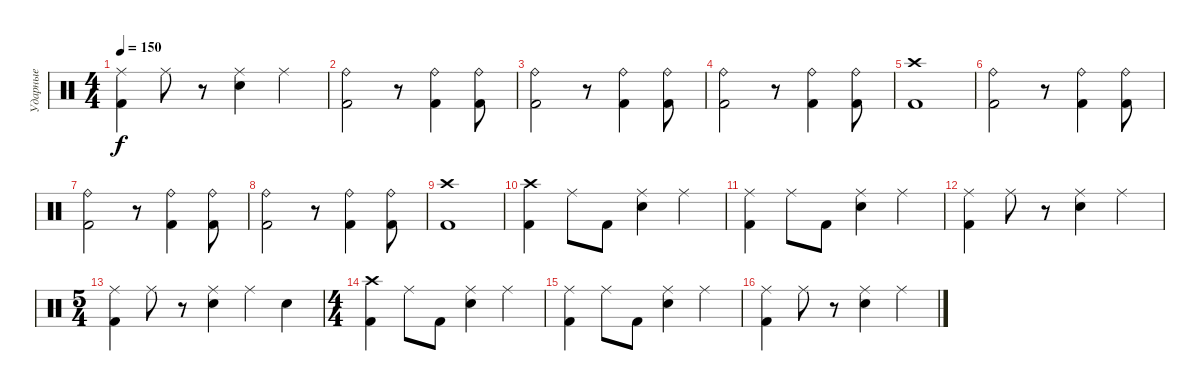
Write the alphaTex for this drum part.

\track ("Ударные" "Ударные") {instrument percussion}
\staff {score}
\articulation defaults
\ts (4 4)
\tempo 150
\clef neutral
\ks c
("Kick (hit) 2" "Ride (middle)").4{dy f} "Ride (middle)".8 r.8 ("Ride (middle)" "Electric Snare (hit)").4 "Ride (middle)".4 |
("Ride (bell)" "Kick (hit) 2").2 r.8 ("Kick (hit) 2" "Ride (bell)").4 ("Ride (bell)" "Kick (hit) 2").8 |
("Ride (bell)" "Kick (hit) 2").2 r.8 ("Kick (hit) 2" "Ride (bell)").4 ("Ride (bell)" "Kick (hit) 2").8 |
("Ride (bell)" "Kick (hit) 2").2 r.8 ("Kick (hit) 2" "Ride (bell)").4 ("Ride (bell)" "Kick (hit) 2").8 |
("Crash high (hit)" "Kick (hit) 2").1 |
("Ride (bell)" "Kick (hit) 2").2 r.8 ("Kick (hit) 2" "Ride (bell)").4 ("Ride (bell)" "Kick (hit) 2").8 |
("Ride (bell)" "Kick (hit) 2").2 r.8 ("Kick (hit) 2" "Ride (bell)").4 ("Ride (bell)" "Kick (hit) 2").8 |
("Ride (bell)" "Kick (hit) 2").2 r.8 ("Kick (hit) 2" "Ride (bell)").4 ("Ride (bell)" "Kick (hit) 2").8 |
("Crash high (hit)" "Kick (hit) 2").1 |
("Kick (hit) 2" "Crash high (hit)").4 "Ride (middle)".8 "Kick (hit) 2".8 ("Ride (middle)" "Electric Snare (hit)").4 "Ride (middle)".4 |
("Kick (hit) 2" "Ride (middle)").4 "Ride (middle)".8 "Kick (hit) 2".8 ("Ride (middle)" "Electric Snare (hit)").4 "Ride (middle)".4 |
("Kick (hit) 2" "Ride (middle)").4 "Ride (middle)".8 r.8 ("Ride (middle)" "Electric Snare (hit)").4 "Ride (middle)".4 |
\ts (5 4)
("Kick (hit) 2" "Ride (middle)").4 "Ride (middle)".8 r.8 ("Ride (middle)" "Electric Snare (hit)").4 "Ride (middle)".4 "Electric Snare (hit)".4 |
\ts (4 4)
("Kick (hit) 2" "Crash high (hit)").4 "Ride (middle)".8 "Kick (hit) 2".8 ("Ride (middle)" "Electric Snare (hit)").4 "Ride (middle)".4 |
("Kick (hit) 2" "Ride (middle)").4 "Ride (middle)".8 "Kick (hit) 2".8 ("Ride (middle)" "Electric Snare (hit)").4 "Ride (middle)".4 |
("Kick (hit) 2" "Ride (middle)").4 "Ride (middle)".8 r.8 ("Ride (middle)" "Electric Snare (hit)").4 "Ride (middle)".4
